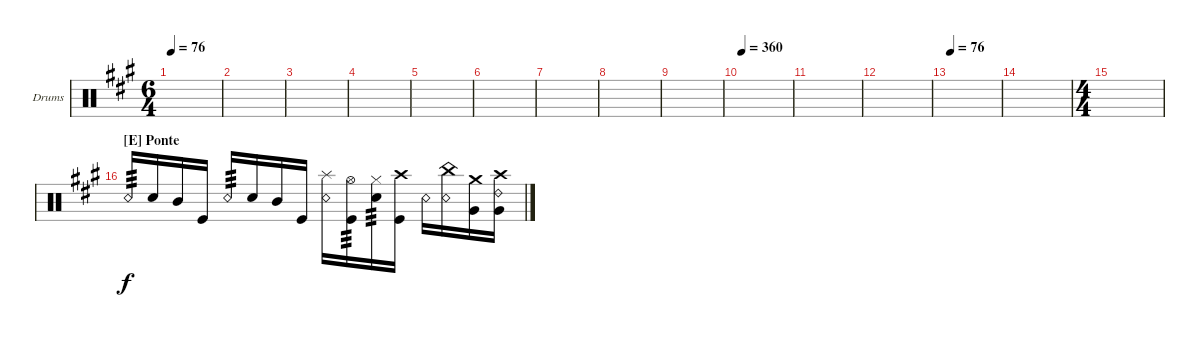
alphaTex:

\defaultSystemsLayout 4
\bracketExtendMode groupsimilarinstruments
\firstSystemTrackNameOrientation horizontal
\otherSystemsTrackNameOrientation horizontal
\track ("Drums" "Drums") {instrument percussion}
\staff {score}
\articulation defaults
\ts (6 4)
\tempo 76
\clef neutral
\ks a
|
|
|
|
|
|
|
|
|
\tempo 360
|
|
|
\tempo 76
|
|
\ts (4 4)
|
\section ("E" "Ponte")
"Snare (rim shot)".16{tp 3} "Snare (hit) 2".16 "Mid Tom (hit)".16 "Kick (hit)".16 "Snare (rim shot)".16{tp 3} "Snare (hit) 2".16 "Mid Tom (hit)".16 "Kick (hit)".16 ("Snare (rim shot)" "Splash (hit)").16 ("Kick (hit)" "Hi-Hat (open)").16{tp 3} ("Snare (hit) 2" "Hi-Hat (closed)").16{tp 3} ("Kick (hit)" "Crash high (hit)").16 "Snare (rim shot)".16 ("Snare (rim shot)" "China (hit)").16 ("Very Low Tom (hit)" "Crash medium (hit)").16 ("Very Low Tom (hit)" "Crash high (hit)" "Ride (bell) 2").16
